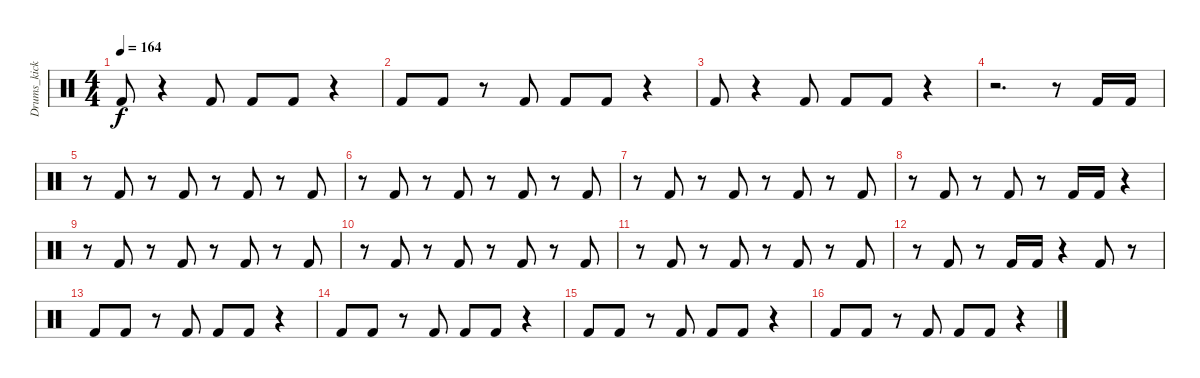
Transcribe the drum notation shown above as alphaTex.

\track ("Drums_kick" "Drums_kick") {instrument percussion}
\staff {score}
\articulation defaults
\ts (4 4)
\tempo 164
\clef neutral
\ks c "Kick (hit) 2".8{dy f}
r.4 "Kick (hit) 2".8 "Kick (hit) 2".8 "Kick (hit) 2".8 r.4 |
"Kick (hit) 2".8 "Kick (hit) 2".8 r.8 "Kick (hit) 2".8 "Kick (hit) 2".8 "Kick (hit) 2".8 r.4 |
"Kick (hit) 2".8 r.4 "Kick (hit) 2".8 "Kick (hit) 2".8 "Kick (hit) 2".8 r.4 |
r.2{d} r.8 "Kick (hit) 2".16 "Kick (hit) 2".16 |
r.8 "Kick (hit) 2".8 r.8 "Kick (hit) 2".8 r.8 "Kick (hit) 2".8 r.8 "Kick (hit) 2".8 |
r.8 "Kick (hit) 2".8 r.8 "Kick (hit) 2".8 r.8 "Kick (hit) 2".8 r.8 "Kick (hit) 2".8 |
r.8 "Kick (hit) 2".8 r.8 "Kick (hit) 2".8 r.8 "Kick (hit) 2".8 r.8 "Kick (hit) 2".8 |
r.8 "Kick (hit) 2".8 r.8 "Kick (hit) 2".8 r.8 "Kick (hit) 2".16 "Kick (hit) 2".16 r.4 |
r.8 "Kick (hit) 2".8 r.8 "Kick (hit) 2".8 r.8 "Kick (hit) 2".8 r.8 "Kick (hit) 2".8 |
r.8 "Kick (hit) 2".8 r.8 "Kick (hit) 2".8 r.8 "Kick (hit) 2".8 r.8 "Kick (hit) 2".8 |
r.8 "Kick (hit) 2".8 r.8 "Kick (hit) 2".8 r.8 "Kick (hit) 2".8 r.8 "Kick (hit) 2".8 |
r.8 "Kick (hit) 2".8 r.8 "Kick (hit) 2".16 "Kick (hit) 2".16 r.4 "Kick (hit) 2".8 r.8 |
"Kick (hit) 2".8 "Kick (hit) 2".8 r.8 "Kick (hit) 2".8 "Kick (hit) 2".8 "Kick (hit) 2".8 r.4 |
"Kick (hit) 2".8 "Kick (hit) 2".8 r.8 "Kick (hit) 2".8 "Kick (hit) 2".8 "Kick (hit) 2".8 r.4 |
"Kick (hit) 2".8 "Kick (hit) 2".8 r.8 "Kick (hit) 2".8 "Kick (hit) 2".8 "Kick (hit) 2".8 r.4 |
"Kick (hit) 2".8 "Kick (hit) 2".8 r.8 "Kick (hit) 2".8 "Kick (hit) 2".8 "Kick (hit) 2".8 r.4
